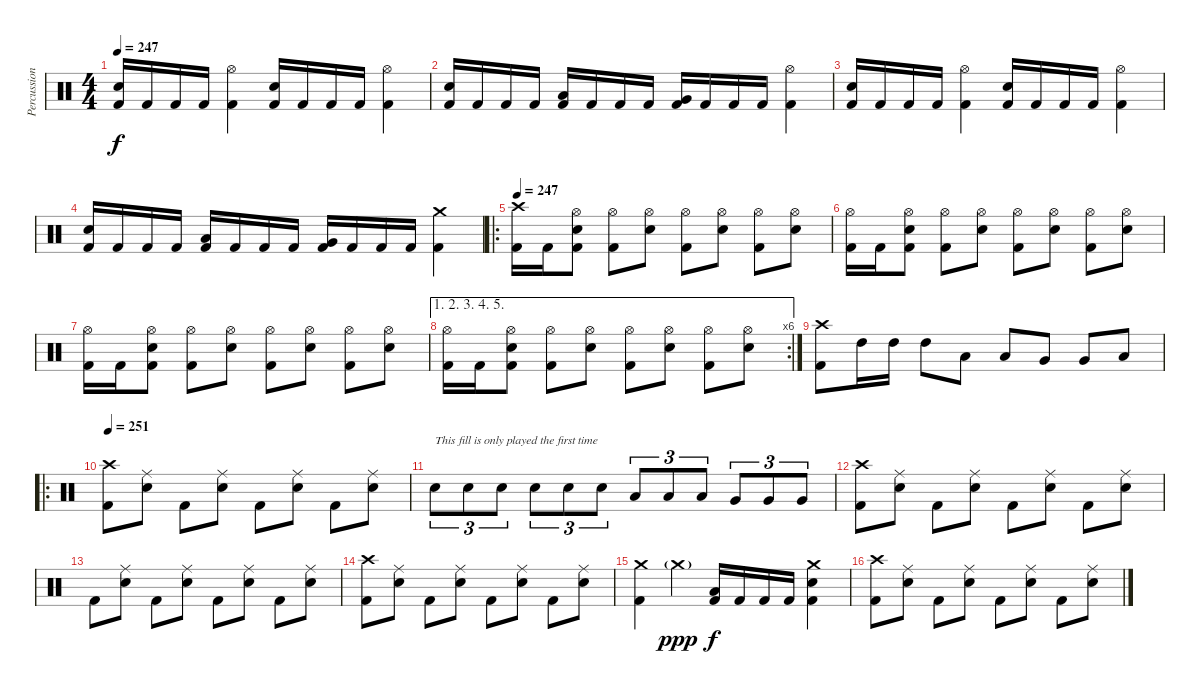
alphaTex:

\track ("Percussion" "Percussion") {instrument percussion}
\staff {score}
\articulation defaults
\ts (4 4)
\tempo 247
\clef neutral
\ks c
("Snare (hit) 2" "Kick (hit) 2").16{dy f} "Kick (hit) 2".16 "Kick (hit) 2".16 "Kick (hit) 2".16 ("Hi-Hat (open)" "Kick (hit) 2").4 ("Snare (hit) 2" "Kick (hit) 2").16 "Kick (hit) 2".16 "Kick (hit) 2".16 "Kick (hit) 2".16 ("Hi-Hat (open)" "Kick (hit) 2").4 |
("Snare (hit) 2" "Kick (hit) 2").16 "Kick (hit) 2".16 "Kick (hit) 2".16 "Kick (hit) 2".16 ("Low Tom (hit)" "Kick (hit) 2").16 "Kick (hit) 2".16 "Kick (hit) 2".16 "Kick (hit) 2".16 ("Very Low Tom (hit)" "Kick (hit) 2").16 "Kick (hit) 2".16 "Kick (hit) 2".16 "Kick (hit) 2".16 ("Hi-Hat (open)" "Kick (hit) 2").4 |
("Snare (hit) 2" "Kick (hit) 2").16 "Kick (hit) 2".16 "Kick (hit) 2".16 "Kick (hit) 2".16 ("Hi-Hat (open)" "Kick (hit) 2").4 ("Snare (hit) 2" "Kick (hit) 2").16 "Kick (hit) 2".16 "Kick (hit) 2".16 "Kick (hit) 2".16 ("Hi-Hat (open)" "Kick (hit) 2").4 |
("Snare (hit) 2" "Kick (hit) 2").16 "Kick (hit) 2".16 "Kick (hit) 2".16 "Kick (hit) 2".16 ("Low Tom (hit)" "Kick (hit) 2").16 "Kick (hit) 2".16 "Kick (hit) 2".16 "Kick (hit) 2".16 ("Very Low Tom (hit)" "Kick (hit) 2").16 "Kick (hit) 2".16 "Kick (hit) 2".16 "Kick (hit) 2".16 ("Crash medium (hit)" "Kick (hit) 2").4 |
\ro
\tempo 247
("Crash high (hit)" "Kick (hit) 2").16 "Kick (hit) 2".16 ("Hi-Hat (open)" "Snare (hit) 2" "Kick (hit) 2").8 ("Hi-Hat (open)" "Kick (hit) 2").8 ("Hi-Hat (open)" "Snare (hit) 2").8 ("Hi-Hat (open)" "Kick (hit) 2").8 ("Hi-Hat (open)" "Snare (hit) 2").8 ("Hi-Hat (open)" "Kick (hit) 2").8 ("Hi-Hat (open)" "Snare (hit) 2").8 |
("Hi-Hat (open)" "Kick (hit) 2").16 "Kick (hit) 2".16 ("Hi-Hat (open)" "Snare (hit) 2" "Kick (hit) 2").8 ("Hi-Hat (open)" "Kick (hit) 2").8 ("Hi-Hat (open)" "Snare (hit) 2").8 ("Hi-Hat (open)" "Kick (hit) 2").8 ("Hi-Hat (open)" "Snare (hit) 2").8 ("Hi-Hat (open)" "Kick (hit) 2").8 ("Hi-Hat (open)" "Snare (hit) 2").8 |
("Hi-Hat (open)" "Kick (hit) 2").16 "Kick (hit) 2".16 ("Hi-Hat (open)" "Snare (hit) 2" "Kick (hit) 2").8 ("Hi-Hat (open)" "Kick (hit) 2").8 ("Hi-Hat (open)" "Snare (hit) 2").8 ("Hi-Hat (open)" "Kick (hit) 2").8 ("Hi-Hat (open)" "Snare (hit) 2").8 ("Hi-Hat (open)" "Kick (hit) 2").8 ("Hi-Hat (open)" "Snare (hit) 2").8 |
\ae (1 2 3 4 5)
\rc 6
("Hi-Hat (open)" "Kick (hit) 2").16 "Kick (hit) 2".16 ("Hi-Hat (open)" "Snare (hit) 2" "Kick (hit) 2").8 ("Hi-Hat (open)" "Kick (hit) 2").8 ("Hi-Hat (open)" "Snare (hit) 2").8 ("Hi-Hat (open)" "Kick (hit) 2").8 ("Hi-Hat (open)" "Snare (hit) 2").8 ("Hi-Hat (open)" "Kick (hit) 2").8 ("Hi-Hat (open)" "Snare (hit) 2").8 |
("Crash high (hit)" "Kick (hit) 2").8 "High Tom (hit)".16 "High Tom (hit)".16 "High Tom (hit)".8 "Low Tom (hit)".8 "Low Tom (hit)".8 "Very Low Tom (hit)".8 "Very Low Tom (hit)".8 "Low Floor Tom (hit)".8 |
\ro
\tempo 251
("Crash high (hit)" "Kick (hit) 2").8 ("Ride (middle)" "Snare (hit) 2").8 "Kick (hit) 2".8 ("Ride (middle)" "Snare (hit) 2").8 "Kick (hit) 2".8 ("Ride (middle)" "Snare (hit) 2").8 "Kick (hit) 2".8 ("Ride (middle)" "Snare (hit) 2").8 |
"Snare (hit) 2".8{tu (3 2) txt "This fill is only played the first time"} "Snare (hit) 2".8{tu (3 2)} "Snare (hit) 2".8{tu (3 2)} "Snare (hit) 2".8{tu (3 2)} "Snare (hit) 2".8{tu (3 2)} "Snare (hit) 2".8{tu (3 2)} "Low Tom (hit)".8{tu (3 2)} "Low Tom (hit)".8{tu (3 2)} "Low Tom (hit)".8{tu (3 2)} "Very Low Tom (hit)".8{tu (3 2)} "Very Low Tom (hit)".8{tu (3 2)} "Very Low Tom (hit)".8{tu (3 2)} |
("Crash high (hit)" "Kick (hit) 2").8 ("Ride (middle)" "Snare (hit) 2").8 "Kick (hit) 2".8 ("Ride (middle)" "Snare (hit) 2").8 "Kick (hit) 2".8 ("Ride (middle)" "Snare (hit) 2").8 "Kick (hit) 2".8 ("Ride (middle)" "Snare (hit) 2").8 |
"Kick (hit) 2".8 ("Ride (middle)" "Snare (hit) 2").8 "Kick (hit) 2".8 ("Ride (middle)" "Snare (hit) 2").8 "Kick (hit) 2".8 ("Ride (middle)" "Snare (hit) 2").8 "Kick (hit) 2".8 ("Ride (middle)" "Snare (hit) 2").8 |
("Crash high (hit)" "Kick (hit) 2").8 ("Ride (middle)" "Snare (hit) 2").8 "Kick (hit) 2".8 ("Ride (middle)" "Snare (hit) 2").8 "Kick (hit) 2".8 ("Ride (middle)" "Snare (hit) 2").8 "Kick (hit) 2".8 ("Ride (middle)" "Snare (hit) 2").8 |
("Crash medium (hit)" "Kick (hit) 2").4 "Crash medium (hit)"{g}.4{dy ppp} ("Low Tom (hit)" "Kick (hit) 2").16{dy f} "Kick (hit) 2".16 "Kick (hit) 2".16 "Kick (hit) 2".16 ("Crash medium (hit)" "Snare (hit) 2" "Kick (hit) 2").4 |
("Crash high (hit)" "Kick (hit) 2").8 ("Ride (middle)" "Snare (hit) 2").8 "Kick (hit) 2".8 ("Ride (middle)" "Snare (hit) 2").8 "Kick (hit) 2".8 ("Ride (middle)" "Snare (hit) 2").8 "Kick (hit) 2".8 ("Ride (middle)" "Snare (hit) 2").8
